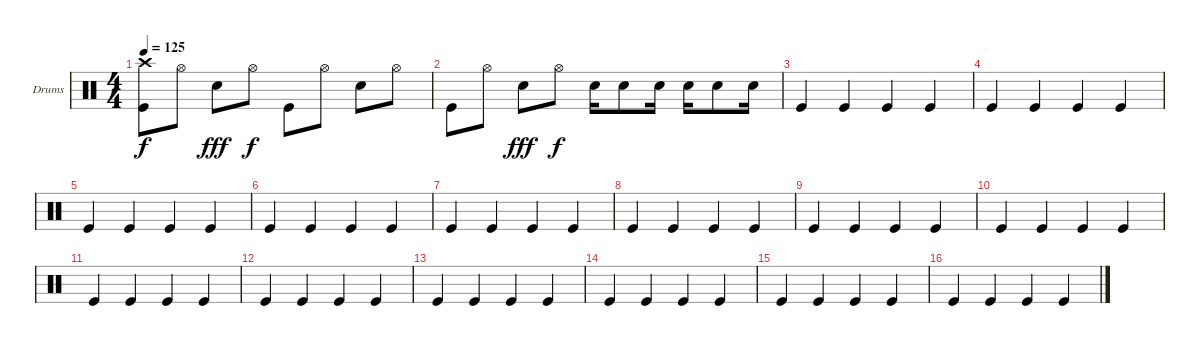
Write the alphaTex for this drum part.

\bracketExtendMode groupsimilarinstruments
\firstSystemTrackNameOrientation horizontal
\otherSystemsTrackNameOrientation horizontal
\track ("Drumkit" "Drums") {instrument percussion}
\staff {score}
\articulation defaults
\ts (4 4)
\tempo 125
\clef neutral
\ks c
("Crash high (hit)" "Kick (hit)").8{dy f} "Hi-Hat (open)".8 "Snare (hit) 2".8{dy fff} "Hi-Hat (open)".8{dy f} "Kick (hit)".8 "Hi-Hat (open)".8 "Snare (hit) 2".8 "Hi-Hat (open)".8 |
"Kick (hit)".8 "Hi-Hat (open)".8 "Snare (hit) 2".8{dy fff} "Hi-Hat (open)".8{dy f} "Snare (hit) 2".16 "Snare (hit) 2".8 "Snare (hit) 2".16 "Snare (hit) 2".16 "Snare (hit) 2".8 "Snare (hit) 2".16 |
"Kick (hit)".4 "Kick (hit)".4 "Kick (hit)".4 "Kick (hit)".4 |
"Kick (hit)".4 "Kick (hit)".4 "Kick (hit)".4 "Kick (hit)".4 |
"Kick (hit)".4 "Kick (hit)".4 "Kick (hit)".4 "Kick (hit)".4 |
"Kick (hit)".4 "Kick (hit)".4 "Kick (hit)".4 "Kick (hit)".4 |
"Kick (hit)".4 "Kick (hit)".4 "Kick (hit)".4 "Kick (hit)".4 |
"Kick (hit)".4 "Kick (hit)".4 "Kick (hit)".4 "Kick (hit)".4 |
"Kick (hit)".4 "Kick (hit)".4 "Kick (hit)".4 "Kick (hit)".4 |
"Kick (hit)".4 "Kick (hit)".4 "Kick (hit)".4 "Kick (hit)".4 |
"Kick (hit)".4 "Kick (hit)".4 "Kick (hit)".4 "Kick (hit)".4 |
"Kick (hit)".4 "Kick (hit)".4 "Kick (hit)".4 "Kick (hit)".4 |
"Kick (hit)".4 "Kick (hit)".4 "Kick (hit)".4 "Kick (hit)".4 |
"Kick (hit)".4 "Kick (hit)".4 "Kick (hit)".4 "Kick (hit)".4 |
"Kick (hit)".4 "Kick (hit)".4 "Kick (hit)".4 "Kick (hit)".4 |
"Kick (hit)".4 "Kick (hit)".4 "Kick (hit)".4 "Kick (hit)".4
